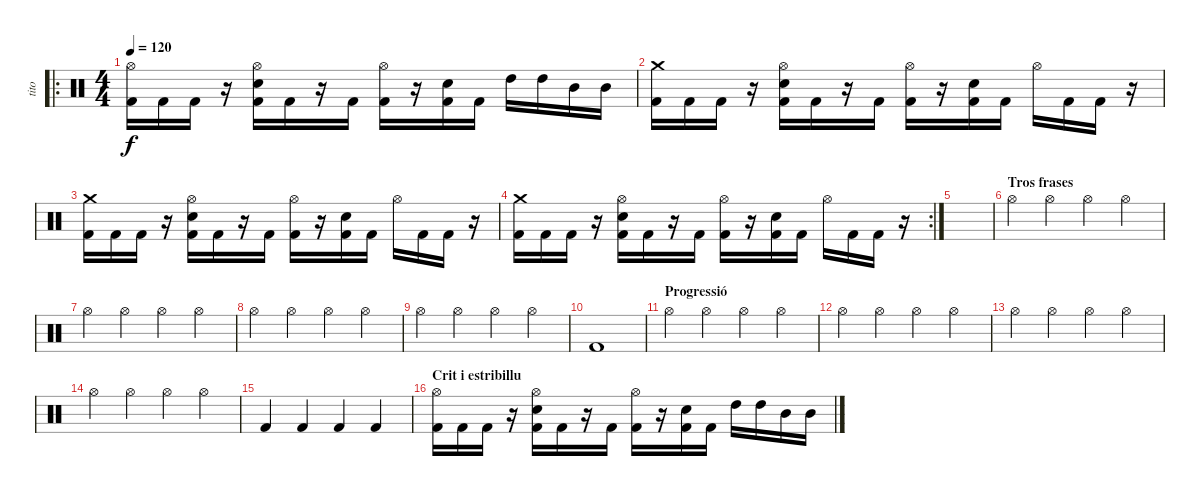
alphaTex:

\track ("tito" "tito") {instrument percussion}
\staff {score}
\articulation defaults
\ro
\ts (4 4)
\tempo 120
\clef neutral
\ks c
("Hi-Hat (open)" "Kick (hit) 2").16{dy f} "Kick (hit) 2".16 "Kick (hit) 2".16 r.16 ("Hi-Hat (open)" "Electric Snare (hit)" "Kick (hit) 2").16 "Kick (hit) 2".16 r.16 "Kick (hit) 2".16 ("Hi-Hat (open)" "Kick (hit) 2").16 r.16 ("Electric Snare (hit)" "Kick (hit) 2").16 "Kick (hit) 2".16 "High Tom (hit)".16 "High Tom (hit)".16 "Mid Tom (hit)".16 "Mid Tom (hit)".16 |
("Crash medium (hit)" "Kick (hit) 2").16 "Kick (hit) 2".16 "Kick (hit) 2".16 r.16 ("Hi-Hat (open)" "Electric Snare (hit)" "Kick (hit) 2").16 "Kick (hit) 2".16 r.16 "Kick (hit) 2".16 ("Hi-Hat (open)" "Kick (hit) 2").16 r.16 ("Electric Snare (hit)" "Kick (hit) 2").16 "Kick (hit) 2".16 "Hi-Hat (open)".16 "Kick (hit) 2".16 "Kick (hit) 2".16 r.16 |
("Crash medium (hit)" "Kick (hit) 2").16 "Kick (hit) 2".16 "Kick (hit) 2".16 r.16 ("Hi-Hat (open)" "Electric Snare (hit)" "Kick (hit) 2").16 "Kick (hit) 2".16 r.16 "Kick (hit) 2".16 ("Hi-Hat (open)" "Kick (hit) 2").16 r.16 ("Electric Snare (hit)" "Kick (hit) 2").16 "Kick (hit) 2".16 "Hi-Hat (open)".16 "Kick (hit) 2".16 "Kick (hit) 2".16 r.16 |
\rc 2
("Crash medium (hit)" "Kick (hit) 2").16 "Kick (hit) 2".16 "Kick (hit) 2".16 r.16 ("Hi-Hat (open)" "Electric Snare (hit)" "Kick (hit) 2").16 "Kick (hit) 2".16 r.16 "Kick (hit) 2".16 ("Hi-Hat (open)" "Kick (hit) 2").16 r.16 ("Electric Snare (hit)" "Kick (hit) 2").16 "Kick (hit) 2".16 "Hi-Hat (open)".16 "Kick (hit) 2".16 "Kick (hit) 2".16 r.16 |
|
\section ("" "Tros frases")
"Hi-Hat (open)".4 "Hi-Hat (open)".4 "Hi-Hat (open)".4 "Hi-Hat (open)".4 |
"Hi-Hat (open)".4 "Hi-Hat (open)".4 "Hi-Hat (open)".4 "Hi-Hat (open)".4 |
"Hi-Hat (open)".4 "Hi-Hat (open)".4 "Hi-Hat (open)".4 "Hi-Hat (open)".4 |
"Hi-Hat (open)".4 "Hi-Hat (open)".4 "Hi-Hat (open)".4 "Hi-Hat (open)".4 |
"Kick (hit) 2".1 |
\section ("" "Progressió")
"Hi-Hat (open)".4 "Hi-Hat (open)".4 "Hi-Hat (open)".4 "Hi-Hat (open)".4 |
"Hi-Hat (open)".4 "Hi-Hat (open)".4 "Hi-Hat (open)".4 "Hi-Hat (open)".4 |
"Hi-Hat (open)".4 "Hi-Hat (open)".4 "Hi-Hat (open)".4 "Hi-Hat (open)".4 |
"Hi-Hat (open)".4 "Hi-Hat (open)".4 "Hi-Hat (open)".4 "Hi-Hat (open)".4 |
"Kick (hit) 2".4 "Kick (hit) 2".4 "Kick (hit) 2".4 "Kick (hit) 2".4 |
\section ("" "Crit i estribillu")
("Hi-Hat (open)" "Kick (hit) 2").16 "Kick (hit) 2".16 "Kick (hit) 2".16 r.16 ("Hi-Hat (open)" "Electric Snare (hit)" "Kick (hit) 2").16 "Kick (hit) 2".16 r.16 "Kick (hit) 2".16 ("Hi-Hat (open)" "Kick (hit) 2").16 r.16 ("Electric Snare (hit)" "Kick (hit) 2").16 "Kick (hit) 2".16 "High Tom (hit)".16 "High Tom (hit)".16 "Mid Tom (hit)".16 "Mid Tom (hit)".16
